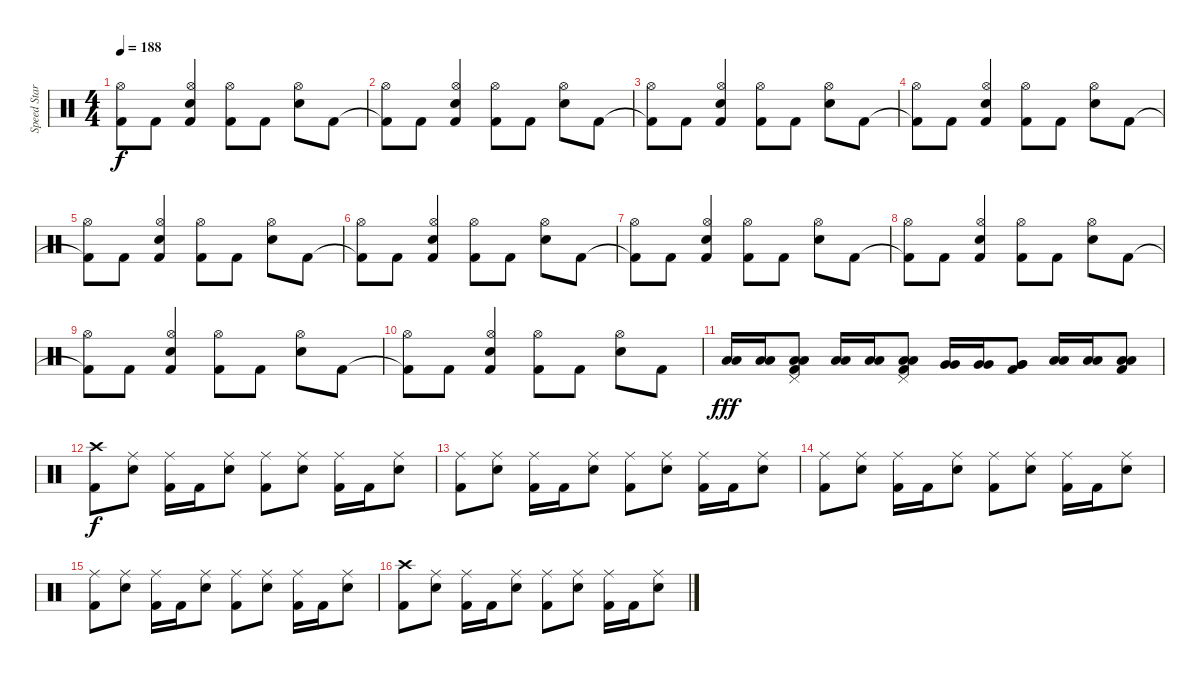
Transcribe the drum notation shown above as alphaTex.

\track ("Speed Star Sypan Joe" "Speed Star") {instrument percussion}
\staff {score}
\articulation defaults
\ts (4 4)
\tempo 188
\clef neutral
\ks c
("Kick (hit) 2"{t} "Hi-Hat (open)").8{dy f} "Kick (hit) 2".8 ("Kick (hit) 2" "Electric Snare (hit)" "Hi-Hat (open)").4 ("Kick (hit) 2" "Hi-Hat (open)").8 "Kick (hit) 2".8 ("Electric Snare (hit)" "Hi-Hat (open)").8 "Kick (hit) 2".8 |
("Kick (hit) 2"{t} "Hi-Hat (open)").8 "Kick (hit) 2".8 ("Kick (hit) 2" "Electric Snare (hit)" "Hi-Hat (open)").4 ("Kick (hit) 2" "Hi-Hat (open)").8 "Kick (hit) 2".8 ("Electric Snare (hit)" "Hi-Hat (open)").8 "Kick (hit) 2".8 |
("Kick (hit) 2"{t} "Hi-Hat (open)").8 "Kick (hit) 2".8 ("Kick (hit) 2" "Electric Snare (hit)" "Hi-Hat (open)").4 ("Kick (hit) 2" "Hi-Hat (open)").8 "Kick (hit) 2".8 ("Electric Snare (hit)" "Hi-Hat (open)").8 "Kick (hit) 2".8 |
("Kick (hit) 2"{t} "Hi-Hat (open)").8 "Kick (hit) 2".8 ("Kick (hit) 2" "Electric Snare (hit)" "Hi-Hat (open)").4 ("Kick (hit) 2" "Hi-Hat (open)").8 "Kick (hit) 2".8 ("Electric Snare (hit)" "Hi-Hat (open)").8 "Kick (hit) 2".8 |
("Kick (hit) 2"{t} "Hi-Hat (open)").8 "Kick (hit) 2".8 ("Kick (hit) 2" "Electric Snare (hit)" "Hi-Hat (open)").4 ("Kick (hit) 2" "Hi-Hat (open)").8 "Kick (hit) 2".8 ("Electric Snare (hit)" "Hi-Hat (open)").8 "Kick (hit) 2".8 |
("Kick (hit) 2"{t} "Hi-Hat (open)").8 "Kick (hit) 2".8 ("Kick (hit) 2" "Electric Snare (hit)" "Hi-Hat (open)").4 ("Kick (hit) 2" "Hi-Hat (open)").8 "Kick (hit) 2".8 ("Electric Snare (hit)" "Hi-Hat (open)").8 "Kick (hit) 2".8 |
("Kick (hit) 2"{t} "Hi-Hat (open)").8 "Kick (hit) 2".8 ("Kick (hit) 2" "Electric Snare (hit)" "Hi-Hat (open)").4 ("Kick (hit) 2" "Hi-Hat (open)").8 "Kick (hit) 2".8 ("Electric Snare (hit)" "Hi-Hat (open)").8 "Kick (hit) 2".8 |
("Kick (hit) 2"{t} "Hi-Hat (open)").8 "Kick (hit) 2".8 ("Kick (hit) 2" "Electric Snare (hit)" "Hi-Hat (open)").4 ("Kick (hit) 2" "Hi-Hat (open)").8 "Kick (hit) 2".8 ("Electric Snare (hit)" "Hi-Hat (open)").8 "Kick (hit) 2".8 |
("Kick (hit) 2"{t} "Hi-Hat (open)").8 "Kick (hit) 2".8 ("Kick (hit) 2" "Electric Snare (hit)" "Hi-Hat (open)").4 ("Kick (hit) 2" "Hi-Hat (open)").8 "Kick (hit) 2".8 ("Electric Snare (hit)" "Hi-Hat (open)").8 "Kick (hit) 2".8 |
("Kick (hit) 2"{t} "Hi-Hat (open)").8 "Kick (hit) 2".8 ("Kick (hit) 2" "Electric Snare (hit)" "Hi-Hat (open)").4 ("Kick (hit) 2" "Hi-Hat (open)").8 "Kick (hit) 2".8 ("Electric Snare (hit)" "Hi-Hat (open)").8 "Kick (hit) 2".8 |
("Low Tom (hit)" "Low Tom (hit)").16{dy fff} ("Low Tom (hit)" "Low Tom (hit)").16 ("Low Tom (hit)" "Kick (hit) 2" "Low Tom (hit)" "Pedal Hi-Hat (hit)").8 ("Low Tom (hit)" "Low Tom (hit)").16 ("Low Tom (hit)" "Low Tom (hit)").16 ("Low Tom (hit)" "Kick (hit) 2" "Low Tom (hit)" "Pedal Hi-Hat (hit)").8 ("Very Low Tom (hit)" "Very Low Tom (hit)").16 ("Very Low Tom (hit)" "Very Low Tom (hit)").16 ("Very Low Tom (hit)" "Kick (hit) 2" "Very Low Tom (hit)").8 ("Low Floor Tom (hit)" "Low Floor Tom (hit)").16 ("Low Floor Tom (hit)" "Low Floor Tom (hit)").16 ("Low Floor Tom (hit)" "Kick (hit) 2" "Low Floor Tom (hit)").8 |
("Kick (hit) 2" "Crash high (hit)").8{dy f} ("Electric Snare (hit)" "Ride (middle)").8 ("Kick (hit) 2" "Ride (middle)").16 "Kick (hit) 2".16 ("Electric Snare (hit)" "Ride (middle)").8 ("Kick (hit) 2" "Ride (middle)").8 ("Electric Snare (hit)" "Ride (middle)").8 ("Kick (hit) 2" "Ride (middle)").16 "Kick (hit) 2".16 ("Electric Snare (hit)" "Ride (middle)").8 |
("Kick (hit) 2" "Ride (middle)").8 ("Electric Snare (hit)" "Ride (middle)").8 ("Kick (hit) 2" "Ride (middle)").16 "Kick (hit) 2".16 ("Electric Snare (hit)" "Ride (middle)").8 ("Kick (hit) 2" "Ride (middle)").8 ("Electric Snare (hit)" "Ride (middle)").8 ("Kick (hit) 2" "Ride (middle)").16 "Kick (hit) 2".16 ("Electric Snare (hit)" "Ride (middle)").8 |
("Kick (hit) 2" "Ride (middle)").8 ("Electric Snare (hit)" "Ride (middle)").8 ("Kick (hit) 2" "Ride (middle)").16 "Kick (hit) 2".16 ("Electric Snare (hit)" "Ride (middle)").8 ("Kick (hit) 2" "Ride (middle)").8 ("Electric Snare (hit)" "Ride (middle)").8 ("Kick (hit) 2" "Ride (middle)").16 "Kick (hit) 2".16 ("Electric Snare (hit)" "Ride (middle)").8 |
("Kick (hit) 2" "Ride (middle)").8 ("Electric Snare (hit)" "Ride (middle)").8 ("Kick (hit) 2" "Ride (middle)").16 "Kick (hit) 2".16 ("Electric Snare (hit)" "Ride (middle)").8 ("Kick (hit) 2" "Ride (middle)").8 ("Electric Snare (hit)" "Ride (middle)").8 ("Kick (hit) 2" "Ride (middle)").16 "Kick (hit) 2".16 ("Electric Snare (hit)" "Ride (middle)").8 |
("Kick (hit) 2" "Crash high (hit)").8 ("Electric Snare (hit)" "Ride (middle)").8 ("Kick (hit) 2" "Ride (middle)").16 "Kick (hit) 2".16 ("Electric Snare (hit)" "Ride (middle)").8 ("Kick (hit) 2" "Ride (middle)").8 ("Electric Snare (hit)" "Ride (middle)").8 ("Kick (hit) 2" "Ride (middle)").16 "Kick (hit) 2".16 ("Electric Snare (hit)" "Ride (middle)").8
